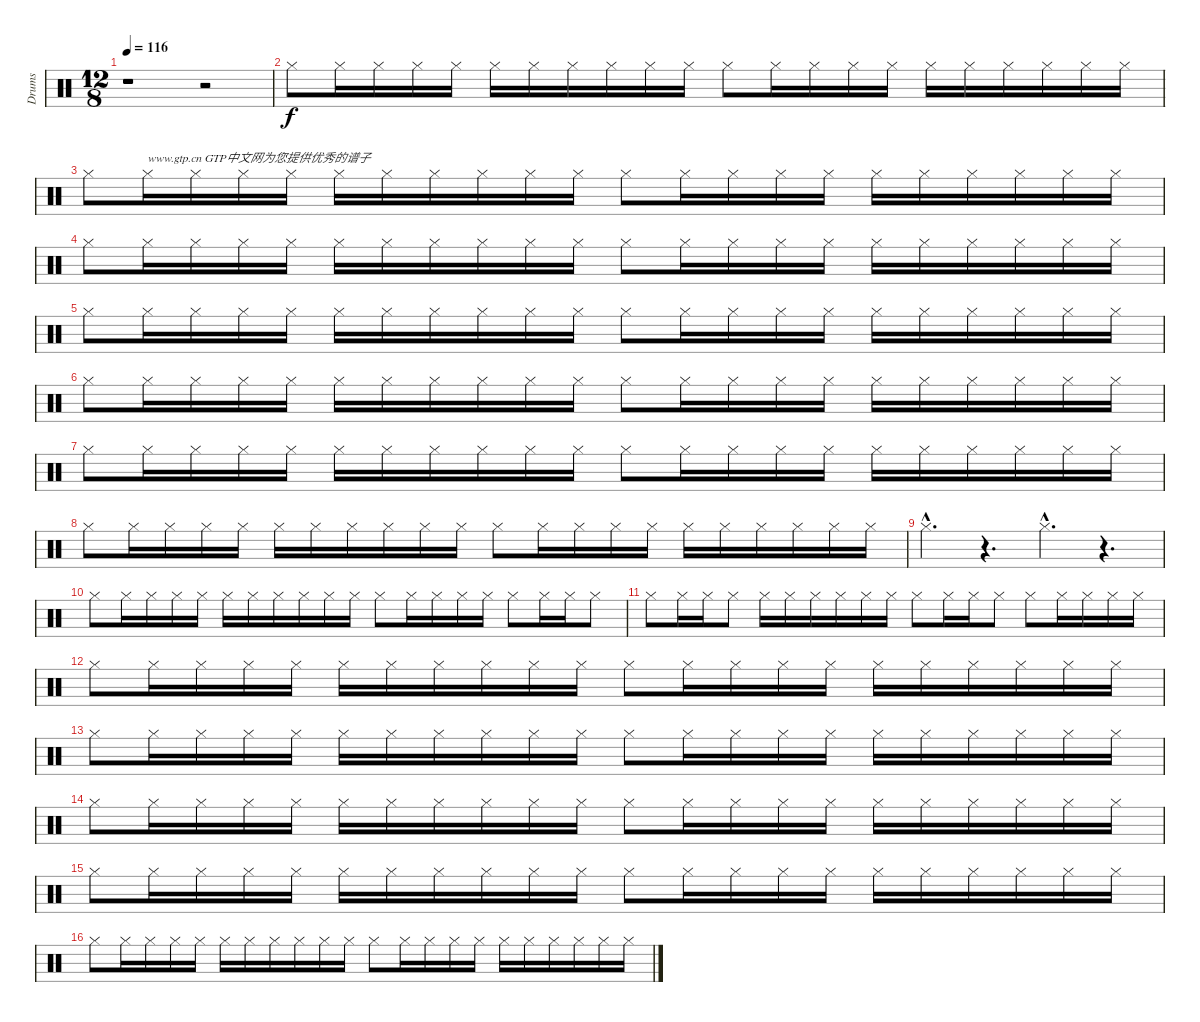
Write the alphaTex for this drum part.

\track ("Drums" "Drums") {instrument percussion}
\staff {score}
\articulation defaults
\ts (12 8)
\tempo 116
\clef neutral
\ks c
r.1{dy f} r.2 |
"Hi-Hat (closed)".8 "Hi-Hat (closed)".16 "Hi-Hat (closed)".16 "Hi-Hat (closed)".16 "Hi-Hat (closed)".16 "Hi-Hat (closed)".16 "Hi-Hat (closed)".16 "Hi-Hat (closed)".16 "Hi-Hat (closed)".16 "Hi-Hat (closed)".16 "Hi-Hat (closed)".16 "Hi-Hat (closed)".8 "Hi-Hat (closed)".16 "Hi-Hat (closed)".16 "Hi-Hat (closed)".16 "Hi-Hat (closed)".16 "Hi-Hat (closed)".16 "Hi-Hat (closed)".16 "Hi-Hat (closed)".16 "Hi-Hat (closed)".16 "Hi-Hat (closed)".16 "Hi-Hat (closed)".16 |
"Hi-Hat (closed)".8 "Hi-Hat (closed)".16{txt "www.gtp.cn GTP中文网为您提供优秀的谱子"} "Hi-Hat (closed)".16 "Hi-Hat (closed)".16 "Hi-Hat (closed)".16 "Hi-Hat (closed)".16 "Hi-Hat (closed)".16 "Hi-Hat (closed)".16 "Hi-Hat (closed)".16 "Hi-Hat (closed)".16 "Hi-Hat (closed)".16 "Hi-Hat (closed)".8 "Hi-Hat (closed)".16 "Hi-Hat (closed)".16 "Hi-Hat (closed)".16 "Hi-Hat (closed)".16 "Hi-Hat (closed)".16 "Hi-Hat (closed)".16 "Hi-Hat (closed)".16 "Hi-Hat (closed)".16 "Hi-Hat (closed)".16 "Hi-Hat (closed)".16 |
"Hi-Hat (closed)".8 "Hi-Hat (closed)".16 "Hi-Hat (closed)".16 "Hi-Hat (closed)".16 "Hi-Hat (closed)".16 "Hi-Hat (closed)".16 "Hi-Hat (closed)".16 "Hi-Hat (closed)".16 "Hi-Hat (closed)".16 "Hi-Hat (closed)".16 "Hi-Hat (closed)".16 "Hi-Hat (closed)".8 "Hi-Hat (closed)".16 "Hi-Hat (closed)".16 "Hi-Hat (closed)".16 "Hi-Hat (closed)".16 "Hi-Hat (closed)".16 "Hi-Hat (closed)".16 "Hi-Hat (closed)".16 "Hi-Hat (closed)".16 "Hi-Hat (closed)".16 "Hi-Hat (closed)".16 |
"Hi-Hat (closed)".8 "Hi-Hat (closed)".16 "Hi-Hat (closed)".16 "Hi-Hat (closed)".16 "Hi-Hat (closed)".16 "Hi-Hat (closed)".16 "Hi-Hat (closed)".16 "Hi-Hat (closed)".16 "Hi-Hat (closed)".16 "Hi-Hat (closed)".16 "Hi-Hat (closed)".16 "Hi-Hat (closed)".8 "Hi-Hat (closed)".16 "Hi-Hat (closed)".16 "Hi-Hat (closed)".16 "Hi-Hat (closed)".16 "Hi-Hat (closed)".16 "Hi-Hat (closed)".16 "Hi-Hat (closed)".16 "Hi-Hat (closed)".16 "Hi-Hat (closed)".16 "Hi-Hat (closed)".16 |
"Hi-Hat (closed)".8 "Hi-Hat (closed)".16 "Hi-Hat (closed)".16 "Hi-Hat (closed)".16 "Hi-Hat (closed)".16 "Hi-Hat (closed)".16 "Hi-Hat (closed)".16 "Hi-Hat (closed)".16 "Hi-Hat (closed)".16 "Hi-Hat (closed)".16 "Hi-Hat (closed)".16 "Hi-Hat (closed)".8 "Hi-Hat (closed)".16 "Hi-Hat (closed)".16 "Hi-Hat (closed)".16 "Hi-Hat (closed)".16 "Hi-Hat (closed)".16 "Hi-Hat (closed)".16 "Hi-Hat (closed)".16 "Hi-Hat (closed)".16 "Hi-Hat (closed)".16 "Hi-Hat (closed)".16 |
"Hi-Hat (closed)".8 "Hi-Hat (closed)".16 "Hi-Hat (closed)".16 "Hi-Hat (closed)".16 "Hi-Hat (closed)".16 "Hi-Hat (closed)".16 "Hi-Hat (closed)".16 "Hi-Hat (closed)".16 "Hi-Hat (closed)".16 "Hi-Hat (closed)".16 "Hi-Hat (closed)".16 "Hi-Hat (closed)".8 "Hi-Hat (closed)".16 "Hi-Hat (closed)".16 "Hi-Hat (closed)".16 "Hi-Hat (closed)".16 "Hi-Hat (closed)".16 "Hi-Hat (closed)".16 "Hi-Hat (closed)".16 "Hi-Hat (closed)".16 "Hi-Hat (closed)".16 "Hi-Hat (closed)".16 |
"Hi-Hat (closed)".8 "Hi-Hat (closed)".16 "Hi-Hat (closed)".16 "Hi-Hat (closed)".16 "Hi-Hat (closed)".16 "Hi-Hat (closed)".16 "Hi-Hat (closed)".16 "Hi-Hat (closed)".16 "Hi-Hat (closed)".16 "Hi-Hat (closed)".16 "Hi-Hat (closed)".16 "Hi-Hat (closed)".8 "Hi-Hat (closed)".16 "Hi-Hat (closed)".16 "Hi-Hat (closed)".16 "Hi-Hat (closed)".16 "Hi-Hat (closed)".16 "Hi-Hat (closed)".16 "Hi-Hat (closed)".16 "Hi-Hat (closed)".16 "Hi-Hat (closed)".16 "Hi-Hat (closed)".16 |
"Hi-Hat (closed)"{hac}.4{d} r.4{d} "Hi-Hat (closed)"{hac}.4{d} r.4{d} |
"Hi-Hat (closed)".8 "Hi-Hat (closed)".16 "Hi-Hat (closed)".16 "Hi-Hat (closed)".16 "Hi-Hat (closed)".16 "Hi-Hat (closed)".16 "Hi-Hat (closed)".16 "Hi-Hat (closed)".16 "Hi-Hat (closed)".16 "Hi-Hat (closed)".16 "Hi-Hat (closed)".16 "Hi-Hat (closed)".8 "Hi-Hat (closed)".16 "Hi-Hat (closed)".16 "Hi-Hat (closed)".16 "Hi-Hat (closed)".16 "Hi-Hat (closed)".8 "Hi-Hat (closed)".16 "Hi-Hat (closed)".16 "Hi-Hat (closed)".8 |
"Hi-Hat (closed)".8 "Hi-Hat (closed)".16 "Hi-Hat (closed)".16 "Hi-Hat (closed)".8 "Hi-Hat (closed)".16 "Hi-Hat (closed)".16 "Hi-Hat (closed)".16 "Hi-Hat (closed)".16 "Hi-Hat (closed)".16 "Hi-Hat (closed)".16 "Hi-Hat (closed)".8 "Hi-Hat (closed)".16 "Hi-Hat (closed)".16 "Hi-Hat (closed)".8 "Hi-Hat (closed)".8 "Hi-Hat (closed)".16 "Hi-Hat (closed)".16 "Hi-Hat (closed)".16 "Hi-Hat (closed)".16 |
"Hi-Hat (closed)".8 "Hi-Hat (closed)".16 "Hi-Hat (closed)".16 "Hi-Hat (closed)".16 "Hi-Hat (closed)".16 "Hi-Hat (closed)".16 "Hi-Hat (closed)".16 "Hi-Hat (closed)".16 "Hi-Hat (closed)".16 "Hi-Hat (closed)".16 "Hi-Hat (closed)".16 "Hi-Hat (closed)".8 "Hi-Hat (closed)".16 "Hi-Hat (closed)".16 "Hi-Hat (closed)".16 "Hi-Hat (closed)".16 "Hi-Hat (closed)".16 "Hi-Hat (closed)".16 "Hi-Hat (closed)".16 "Hi-Hat (closed)".16 "Hi-Hat (closed)".16 "Hi-Hat (closed)".16 |
"Hi-Hat (closed)".8 "Hi-Hat (closed)".16 "Hi-Hat (closed)".16 "Hi-Hat (closed)".16 "Hi-Hat (closed)".16 "Hi-Hat (closed)".16 "Hi-Hat (closed)".16 "Hi-Hat (closed)".16 "Hi-Hat (closed)".16 "Hi-Hat (closed)".16 "Hi-Hat (closed)".16 "Hi-Hat (closed)".8 "Hi-Hat (closed)".16 "Hi-Hat (closed)".16 "Hi-Hat (closed)".16 "Hi-Hat (closed)".16 "Hi-Hat (closed)".16 "Hi-Hat (closed)".16 "Hi-Hat (closed)".16 "Hi-Hat (closed)".16 "Hi-Hat (closed)".16 "Hi-Hat (closed)".16 |
"Hi-Hat (closed)".8 "Hi-Hat (closed)".16 "Hi-Hat (closed)".16 "Hi-Hat (closed)".16 "Hi-Hat (closed)".16 "Hi-Hat (closed)".16 "Hi-Hat (closed)".16 "Hi-Hat (closed)".16 "Hi-Hat (closed)".16 "Hi-Hat (closed)".16 "Hi-Hat (closed)".16 "Hi-Hat (closed)".8 "Hi-Hat (closed)".16 "Hi-Hat (closed)".16 "Hi-Hat (closed)".16 "Hi-Hat (closed)".16 "Hi-Hat (closed)".16 "Hi-Hat (closed)".16 "Hi-Hat (closed)".16 "Hi-Hat (closed)".16 "Hi-Hat (closed)".16 "Hi-Hat (closed)".16 |
"Hi-Hat (closed)".8 "Hi-Hat (closed)".16 "Hi-Hat (closed)".16 "Hi-Hat (closed)".16 "Hi-Hat (closed)".16 "Hi-Hat (closed)".16 "Hi-Hat (closed)".16 "Hi-Hat (closed)".16 "Hi-Hat (closed)".16 "Hi-Hat (closed)".16 "Hi-Hat (closed)".16 "Hi-Hat (closed)".8 "Hi-Hat (closed)".16 "Hi-Hat (closed)".16 "Hi-Hat (closed)".16 "Hi-Hat (closed)".16 "Hi-Hat (closed)".16 "Hi-Hat (closed)".16 "Hi-Hat (closed)".16 "Hi-Hat (closed)".16 "Hi-Hat (closed)".16 "Hi-Hat (closed)".16 |
"Hi-Hat (closed)".8 "Hi-Hat (closed)".16 "Hi-Hat (closed)".16 "Hi-Hat (closed)".16 "Hi-Hat (closed)".16 "Hi-Hat (closed)".16 "Hi-Hat (closed)".16 "Hi-Hat (closed)".16 "Hi-Hat (closed)".16 "Hi-Hat (closed)".16 "Hi-Hat (closed)".16 "Hi-Hat (closed)".8 "Hi-Hat (closed)".16 "Hi-Hat (closed)".16 "Hi-Hat (closed)".16 "Hi-Hat (closed)".16 "Hi-Hat (closed)".16 "Hi-Hat (closed)".16 "Hi-Hat (closed)".16 "Hi-Hat (closed)".16 "Hi-Hat (closed)".16 "Hi-Hat (closed)".16
